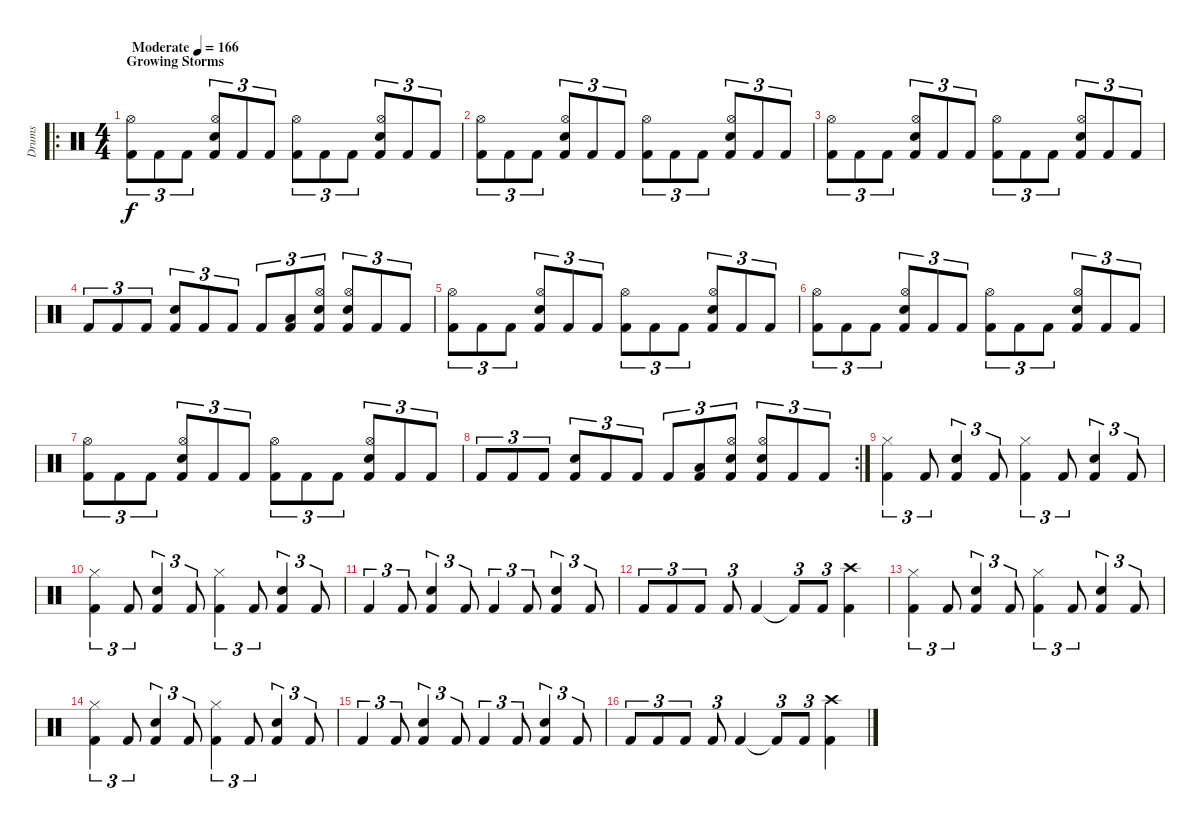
\track ("Drums" "Drums") {instrument percussion}
\staff {score}
\articulation defaults
\ro
\ts (4 4)
\section ("" "Growing Storms")
\tempo (166 "Moderate")
\clef neutral
\ks c
("Kick (hit) 2" "Hi-Hat (open)").8{tu (3 2) dy f} "Kick (hit) 2".8{tu (3 2)} "Kick (hit) 2".8{tu (3 2)} ("Kick (hit) 2" "Hi-Hat (open)" "Electric Snare (hit)").8{tu (3 2)} "Kick (hit) 2".8{tu (3 2)} "Kick (hit) 2".8{tu (3 2)} ("Kick (hit) 2" "Hi-Hat (open)").8{tu (3 2)} "Kick (hit) 2".8{tu (3 2)} "Kick (hit) 2".8{tu (3 2)} ("Kick (hit) 2" "Hi-Hat (open)" "Electric Snare (hit)").8{tu (3 2)} "Kick (hit) 2".8{tu (3 2)} "Kick (hit) 2".8{tu (3 2)} |
("Kick (hit) 2" "Hi-Hat (open)").8{tu (3 2)} "Kick (hit) 2".8{tu (3 2)} "Kick (hit) 2".8{tu (3 2)} ("Kick (hit) 2" "Hi-Hat (open)" "Electric Snare (hit)").8{tu (3 2)} "Kick (hit) 2".8{tu (3 2)} "Kick (hit) 2".8{tu (3 2)} ("Kick (hit) 2" "Hi-Hat (open)").8{tu (3 2)} "Kick (hit) 2".8{tu (3 2)} "Kick (hit) 2".8{tu (3 2)} ("Kick (hit) 2" "Hi-Hat (open)" "Electric Snare (hit)").8{tu (3 2)} "Kick (hit) 2".8{tu (3 2)} "Kick (hit) 2".8{tu (3 2)} |
("Kick (hit) 2" "Hi-Hat (open)").8{tu (3 2)} "Kick (hit) 2".8{tu (3 2)} "Kick (hit) 2".8{tu (3 2)} ("Kick (hit) 2" "Hi-Hat (open)" "Electric Snare (hit)").8{tu (3 2)} "Kick (hit) 2".8{tu (3 2)} "Kick (hit) 2".8{tu (3 2)} ("Kick (hit) 2" "Hi-Hat (open)").8{tu (3 2)} "Kick (hit) 2".8{tu (3 2)} "Kick (hit) 2".8{tu (3 2)} ("Kick (hit) 2" "Hi-Hat (open)" "Electric Snare (hit)").8{tu (3 2)} "Kick (hit) 2".8{tu (3 2)} "Kick (hit) 2".8{tu (3 2)} |
"Kick (hit) 2".8{tu (3 2)} "Kick (hit) 2".8{tu (3 2)} "Kick (hit) 2".8{tu (3 2)} ("Kick (hit) 2" "Electric Snare (hit)").8{tu (3 2)} "Kick (hit) 2".8{tu (3 2)} "Kick (hit) 2".8{tu (3 2)} "Kick (hit) 2".8{tu (3 2)} ("Kick (hit) 2" "Low Floor Tom (hit)").8{tu (3 2)} ("Kick (hit) 2" "Hi-Hat (open)" "Electric Snare (hit)").8{tu (3 2)} ("Kick (hit) 2" "Hi-Hat (open)" "Electric Snare (hit)").8{tu (3 2)} "Kick (hit) 2".8{tu (3 2)} "Kick (hit) 2".8{tu (3 2)} |
("Kick (hit) 2" "Hi-Hat (open)").8{tu (3 2)} "Kick (hit) 2".8{tu (3 2)} "Kick (hit) 2".8{tu (3 2)} ("Kick (hit) 2" "Hi-Hat (open)" "Electric Snare (hit)").8{tu (3 2)} "Kick (hit) 2".8{tu (3 2)} "Kick (hit) 2".8{tu (3 2)} ("Kick (hit) 2" "Hi-Hat (open)").8{tu (3 2)} "Kick (hit) 2".8{tu (3 2)} "Kick (hit) 2".8{tu (3 2)} ("Kick (hit) 2" "Hi-Hat (open)" "Electric Snare (hit)").8{tu (3 2)} "Kick (hit) 2".8{tu (3 2)} "Kick (hit) 2".8{tu (3 2)} |
("Kick (hit) 2" "Hi-Hat (open)").8{tu (3 2)} "Kick (hit) 2".8{tu (3 2)} "Kick (hit) 2".8{tu (3 2)} ("Kick (hit) 2" "Hi-Hat (open)" "Electric Snare (hit)").8{tu (3 2)} "Kick (hit) 2".8{tu (3 2)} "Kick (hit) 2".8{tu (3 2)} ("Kick (hit) 2" "Hi-Hat (open)").8{tu (3 2)} "Kick (hit) 2".8{tu (3 2)} "Kick (hit) 2".8{tu (3 2)} ("Kick (hit) 2" "Hi-Hat (open)" "Electric Snare (hit)").8{tu (3 2)} "Kick (hit) 2".8{tu (3 2)} "Kick (hit) 2".8{tu (3 2)} |
("Kick (hit) 2" "Hi-Hat (open)").8{tu (3 2)} "Kick (hit) 2".8{tu (3 2)} "Kick (hit) 2".8{tu (3 2)} ("Kick (hit) 2" "Hi-Hat (open)" "Electric Snare (hit)").8{tu (3 2)} "Kick (hit) 2".8{tu (3 2)} "Kick (hit) 2".8{tu (3 2)} ("Kick (hit) 2" "Hi-Hat (open)").8{tu (3 2)} "Kick (hit) 2".8{tu (3 2)} "Kick (hit) 2".8{tu (3 2)} ("Kick (hit) 2" "Hi-Hat (open)" "Electric Snare (hit)").8{tu (3 2)} "Kick (hit) 2".8{tu (3 2)} "Kick (hit) 2".8{tu (3 2)} |
\rc 2 "Kick (hit) 2".8{tu (3 2)} "Kick (hit) 2".8{tu (3 2)} "Kick (hit) 2".8{tu (3 2)}
("Kick (hit) 2" "Electric Snare (hit)").8{tu (3 2)} "Kick (hit) 2".8{tu (3 2)} "Kick (hit) 2".8{tu (3 2)} "Kick (hit) 2".8{tu (3 2)} ("Kick (hit) 2" "Low Floor Tom (hit)").8{tu (3 2)} ("Kick (hit) 2" "Hi-Hat (open)" "Electric Snare (hit)").8{tu (3 2)} ("Kick (hit) 2" "Hi-Hat (open)" "Electric Snare (hit)").8{tu (3 2)} "Kick (hit) 2".8{tu (3 2)} "Kick (hit) 2".8{tu (3 2)} |
("Kick (hit) 2" "Hi-Hat (closed)").4{tu (3 2)} "Kick (hit) 2".8{tu (3 2)} ("Kick (hit) 2" "Electric Snare (hit)").4{tu (3 2)} "Kick (hit) 2".8{tu (3 2)} ("Kick (hit) 2" "Hi-Hat (closed)").4{tu (3 2)} "Kick (hit) 2".8{tu (3 2)} ("Kick (hit) 2" "Electric Snare (hit)").4{tu (3 2)} "Kick (hit) 2".8{tu (3 2)} |
("Kick (hit) 2" "Hi-Hat (closed)").4{tu (3 2)} "Kick (hit) 2".8{tu (3 2)} ("Kick (hit) 2" "Electric Snare (hit)").4{tu (3 2)} "Kick (hit) 2".8{tu (3 2)} ("Kick (hit) 2" "Hi-Hat (closed)").4{tu (3 2)} "Kick (hit) 2".8{tu (3 2)} ("Kick (hit) 2" "Electric Snare (hit)").4{tu (3 2)} "Kick (hit) 2".8{tu (3 2)} |
"Kick (hit) 2".4{tu (3 2)} "Kick (hit) 2".8{tu (3 2)} ("Kick (hit) 2" "Electric Snare (hit)").4{tu (3 2)} "Kick (hit) 2".8{tu (3 2)} "Kick (hit) 2".4{tu (3 2)} "Kick (hit) 2".8{tu (3 2)} ("Kick (hit) 2" "Electric Snare (hit)").4{tu (3 2)} "Kick (hit) 2".8{tu (3 2)} |
"Kick (hit) 2".8{tu (3 2)} "Kick (hit) 2".8{tu (3 2)} "Kick (hit) 2".8{tu (3 2)} "Kick (hit) 2".8{tu (3 2)} "Kick (hit) 2".4 "Kick (hit) 2"{t}.8{tu (3 2)} "Kick (hit) 2".8{tu (3 2)} ("Kick (hit) 2" "Crash high (hit)").4 |
("Kick (hit) 2" "Hi-Hat (closed)").4{tu (3 2)} "Kick (hit) 2".8{tu (3 2)} ("Kick (hit) 2" "Electric Snare (hit)").4{tu (3 2)} "Kick (hit) 2".8{tu (3 2)} ("Kick (hit) 2" "Hi-Hat (closed)").4{tu (3 2)} "Kick (hit) 2".8{tu (3 2)} ("Kick (hit) 2" "Electric Snare (hit)").4{tu (3 2)} "Kick (hit) 2".8{tu (3 2)} |
("Kick (hit) 2" "Hi-Hat (closed)").4{tu (3 2)} "Kick (hit) 2".8{tu (3 2)} ("Kick (hit) 2" "Electric Snare (hit)").4{tu (3 2)} "Kick (hit) 2".8{tu (3 2)} ("Kick (hit) 2" "Hi-Hat (closed)").4{tu (3 2)} "Kick (hit) 2".8{tu (3 2)} ("Kick (hit) 2" "Electric Snare (hit)").4{tu (3 2)} "Kick (hit) 2".8{tu (3 2)} |
"Kick (hit) 2".4{tu (3 2)} "Kick (hit) 2".8{tu (3 2)} ("Kick (hit) 2" "Electric Snare (hit)").4{tu (3 2)} "Kick (hit) 2".8{tu (3 2)} "Kick (hit) 2".4{tu (3 2)} "Kick (hit) 2".8{tu (3 2)} ("Kick (hit) 2" "Electric Snare (hit)").4{tu (3 2)} "Kick (hit) 2".8{tu (3 2)} |
"Kick (hit) 2".8{tu (3 2)} "Kick (hit) 2".8{tu (3 2)} "Kick (hit) 2".8{tu (3 2)} "Kick (hit) 2".8{tu (3 2)} "Kick (hit) 2".4 "Kick (hit) 2"{t}.8{tu (3 2)} "Kick (hit) 2".8{tu (3 2)} ("Kick (hit) 2" "Crash high (hit)").4
